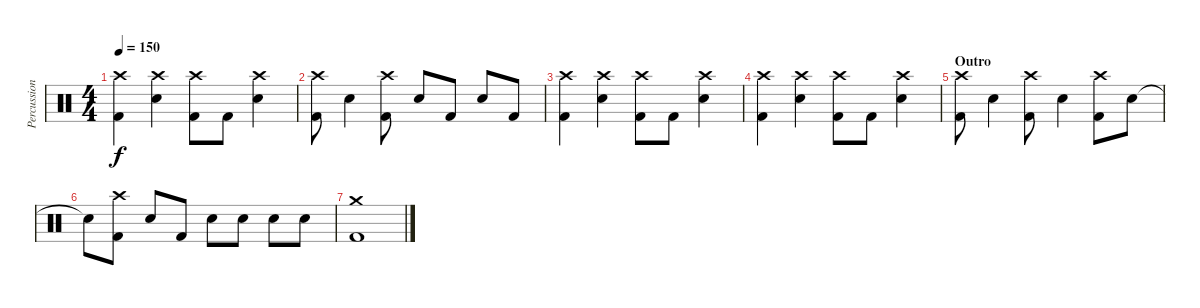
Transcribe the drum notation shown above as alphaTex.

\track ("Percussion" "Percussion") {instrument percussion}
\staff {score}
\articulation defaults
\ts (4 4)
\tempo 150
\clef neutral
\ks c
("Crash high (hit)" "Kick (hit) 2").4{dy f} ("Crash high (hit)" "Electric Snare (hit)").4 ("Crash high (hit)" "Kick (hit) 2").8 "Kick (hit) 2".8 ("Crash high (hit)" "Electric Snare (hit)").4 |
("Crash high (hit)" "Kick (hit) 2").8 "Electric Snare (hit)".4 ("Crash high (hit)" "Kick (hit) 2").8 "Electric Snare (hit)".8 "Kick (hit) 2".8 "Electric Snare (hit)".8 "Kick (hit) 2".8 |
("Crash high (hit)" "Kick (hit) 2").4 ("Crash high (hit)" "Electric Snare (hit)").4 ("Crash high (hit)" "Kick (hit) 2").8 "Kick (hit) 2".8 ("Crash high (hit)" "Electric Snare (hit)").4 |
("Crash high (hit)" "Kick (hit) 2").4 ("Crash high (hit)" "Electric Snare (hit)").4 ("Crash high (hit)" "Kick (hit) 2").8 "Kick (hit) 2".8 ("Crash high (hit)" "Electric Snare (hit)").4 |
\section ("" "Outro")
("Crash high (hit)" "Kick (hit) 2").8 "Electric Snare (hit)".4 ("Crash high (hit)" "Kick (hit) 2").8 "Electric Snare (hit)".4 ("Crash high (hit)" "Kick (hit) 2").8 "Electric Snare (hit)".8 |
"Snare (hit)"{t}.8 ("Crash high (hit)" "Kick (hit) 2").8 "Electric Snare (hit)".8 "Kick (hit) 2".8 "Electric Snare (hit)".8 "Electric Snare (hit)".8 "Electric Snare (hit)".8 "Electric Snare (hit)".8 |
("Crash medium (hit)" "Kick (hit) 2").1
